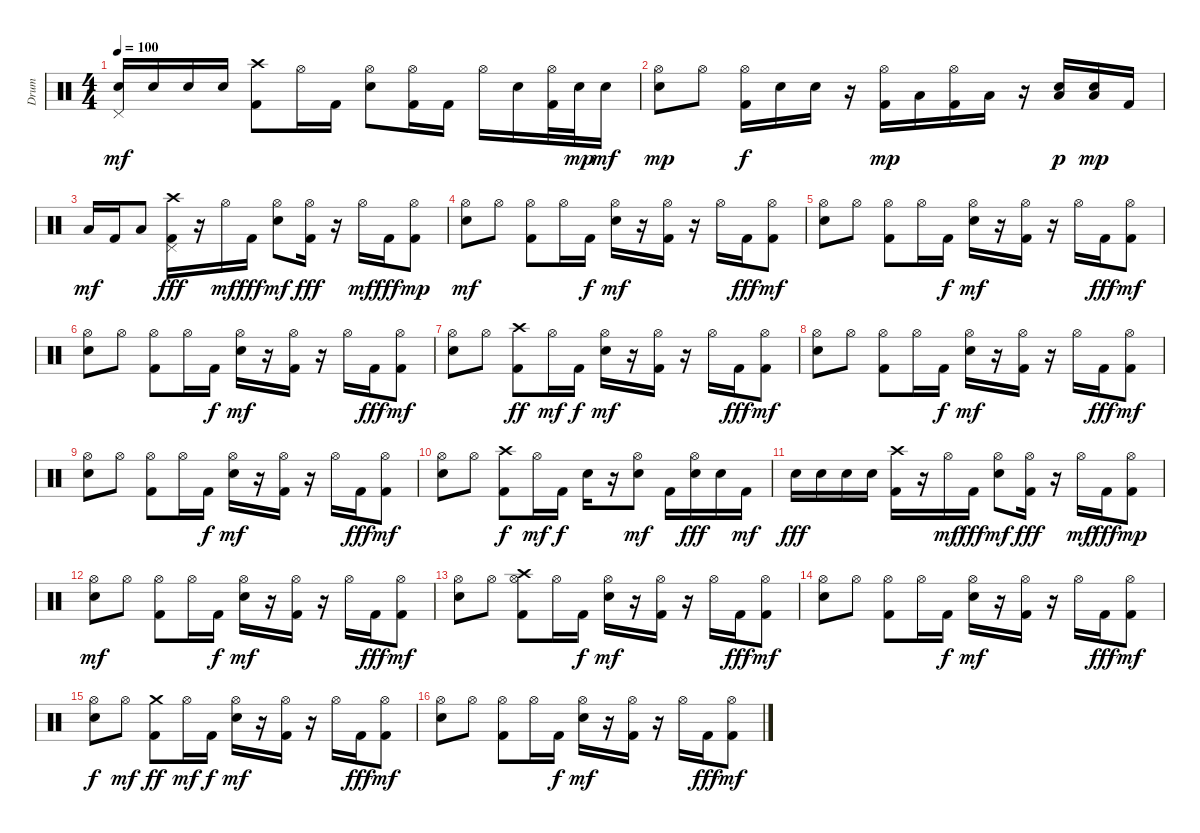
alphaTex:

\track ("Drum" "Drum") {instrument percussion}
\staff {score}
\articulation defaults
\ts (4 4)
\tempo 100
\clef neutral
\ks c
("Snare (hit) 2" "Pedal Hi-Hat (hit)").16{dy mf} "Snare (hit) 2".16 "Snare (hit) 2".16 "Snare (hit) 2".16 ("Crash high (hit)" "Kick (hit) 2").8 "Hi-Hat (open)".16 "Kick (hit) 2".16 ("Snare (hit) 2" "Hi-Hat (open)").8 ("Hi-Hat (open)" "Kick (hit) 2").16 "Kick (hit) 2".16 "Hi-Hat (open)".16 "Snare (hit) 2".16 ("Hi-Hat (open)" "Kick (hit) 2").32 "Snare (hit) 2".32{dy mp} "Snare (hit) 2".16{dy mf} |
("Snare (hit) 2" "Hi-Hat (open)").8{dy mp} "Hi-Hat (open)".8 ("Hi-Hat (open)" "Kick (hit) 2").16{dy f} "Snare (hit) 2".16 "Snare (hit) 2".16 r.16 ("Hi-Hat (open)" "Kick (hit) 2").16{dy mp} "Low Tom (hit)".16 ("Hi-Hat (open)" "Kick (hit) 2").16 "Low Tom (hit)".16 r.16 ("Low Floor Tom (hit)" "Snare (hit) 2").16{dy p} ("Low Floor Tom (hit)" "Snare (hit) 2").16{dy mp} "Kick (hit) 2".16 |
"Low Floor Tom (hit)".16{dy mf} "Kick (hit) 2".16 "Low Floor Tom (hit)".8 ("Crash high (hit)" "Pedal Hi-Hat (hit)" "Kick (hit) 2").16{dy fff} r.16 "Hi-Hat (open)".16{dy mf} "Kick (hit) 2".16{dy fff} ("Snare (hit) 2" "Hi-Hat (open)").8{dy mf} ("Hi-Hat (open)" "Kick (hit) 2").16{dy fff} r.16 "Hi-Hat (open)".16{dy mf} "Kick (hit) 2".16{dy fff} ("Hi-Hat (open)" "Kick (hit) 2").8{dy mp} |
("Snare (hit) 2" "Hi-Hat (open)").8{dy mf} "Hi-Hat (open)".8 ("Hi-Hat (open)" "Kick (hit) 2").8 "Hi-Hat (open)".16 "Kick (hit) 2".16{dy f} ("Snare (hit) 2" "Hi-Hat (open)").16{dy mf} r.16 ("Hi-Hat (open)" "Kick (hit) 2").16 r.16 "Hi-Hat (open)".16 "Kick (hit) 2".16{dy fff} ("Hi-Hat (open)" "Kick (hit) 2").8{dy mf} |
("Snare (hit) 2" "Hi-Hat (open)").8 "Hi-Hat (open)".8 ("Hi-Hat (open)" "Kick (hit) 2").8 "Hi-Hat (open)".16 "Kick (hit) 2".16{dy f} ("Snare (hit) 2" "Hi-Hat (open)").16{dy mf} r.16 ("Hi-Hat (open)" "Kick (hit) 2").16 r.16 "Hi-Hat (open)".16 "Kick (hit) 2".16{dy fff} ("Hi-Hat (open)" "Kick (hit) 2").8{dy mf} |
("Snare (hit) 2" "Hi-Hat (open)").8 "Hi-Hat (open)".8 ("Hi-Hat (open)" "Kick (hit) 2").8 "Hi-Hat (open)".16 "Kick (hit) 2".16{dy f} ("Snare (hit) 2" "Hi-Hat (open)").16{dy mf} r.16 ("Hi-Hat (open)" "Kick (hit) 2").16 r.16 "Hi-Hat (open)".16 "Kick (hit) 2".16{dy fff} ("Hi-Hat (open)" "Kick (hit) 2").8{dy mf} |
("Snare (hit) 2" "Hi-Hat (open)").8 "Hi-Hat (open)".8 ("Crash high (hit)" "Kick (hit) 2").8{dy ff} "Hi-Hat (open)".16{dy mf} "Kick (hit) 2".16{dy f} ("Snare (hit) 2" "Hi-Hat (open)").16{dy mf} r.16 ("Hi-Hat (open)" "Kick (hit) 2").16 r.16 "Hi-Hat (open)".16 "Kick (hit) 2".16{dy fff} ("Hi-Hat (open)" "Kick (hit) 2").8{dy mf} |
("Snare (hit) 2" "Hi-Hat (open)").8 "Hi-Hat (open)".8 ("Hi-Hat (open)" "Kick (hit) 2").8 "Hi-Hat (open)".16 "Kick (hit) 2".16{dy f} ("Snare (hit) 2" "Hi-Hat (open)").16{dy mf} r.16 ("Hi-Hat (open)" "Kick (hit) 2").16 r.16 "Hi-Hat (open)".16 "Kick (hit) 2".16{dy fff} ("Hi-Hat (open)" "Kick (hit) 2").8{dy mf} |
("Snare (hit) 2" "Hi-Hat (open)").8 "Hi-Hat (open)".8 ("Hi-Hat (open)" "Kick (hit) 2").8 "Hi-Hat (open)".16 "Kick (hit) 2".16{dy f} ("Snare (hit) 2" "Hi-Hat (open)").16{dy mf} r.16 ("Hi-Hat (open)" "Kick (hit) 2").16 r.16 "Hi-Hat (open)".16 "Kick (hit) 2".16{dy fff} ("Hi-Hat (open)" "Kick (hit) 2").8{dy mf} |
("Snare (hit) 2" "Hi-Hat (open)").8 "Hi-Hat (open)".8 ("Crash high (hit)" "Kick (hit) 2").8{dy f} "Hi-Hat (open)".16{dy mf} "Kick (hit) 2".16{dy f} "Snare (hit) 2".16 r.16 ("Snare (hit) 2" "Hi-Hat (open)").8{dy mf} "Kick (hit) 2".16 ("Snare (hit) 2" "Hi-Hat (open)").16{dy fff} "Snare (hit) 2".16 "Kick (hit) 2".16{dy mf} |
"Snare (hit) 2".16{dy fff} "Snare (hit) 2".16 "Snare (hit) 2".16 "Snare (hit) 2".16 ("Crash high (hit)" "Kick (hit) 2").16 r.16 "Hi-Hat (open)".16{dy mf} "Kick (hit) 2".16{dy fff} ("Snare (hit) 2" "Hi-Hat (open)").8{dy mf} ("Hi-Hat (open)" "Kick (hit) 2").16{dy fff} r.16 "Hi-Hat (open)".16{dy mf} "Kick (hit) 2".16{dy fff} ("Hi-Hat (open)" "Kick (hit) 2").8{dy mp} |
("Snare (hit) 2" "Hi-Hat (open)").8{dy mf} "Hi-Hat (open)".8 ("Hi-Hat (open)" "Kick (hit) 2").8 "Hi-Hat (open)".16 "Kick (hit) 2".16{dy f} ("Snare (hit) 2" "Hi-Hat (open)").16{dy mf} r.16 ("Hi-Hat (open)" "Kick (hit) 2").16 r.16 "Hi-Hat (open)".16 "Kick (hit) 2".16{dy fff} ("Hi-Hat (open)" "Kick (hit) 2").8{dy mf} |
("Snare (hit) 2" "Hi-Hat (open)").8 "Hi-Hat (open)".8 ("Crash high (hit)" "Hi-Hat (open)" "Kick (hit) 2").8 "Hi-Hat (open)".16 "Kick (hit) 2".16{dy f} ("Snare (hit) 2" "Hi-Hat (open)").16{dy mf} r.16 ("Hi-Hat (open)" "Kick (hit) 2").16 r.16 "Hi-Hat (open)".16 "Kick (hit) 2".16{dy fff} ("Hi-Hat (open)" "Kick (hit) 2").8{dy mf} |
("Snare (hit) 2" "Hi-Hat (open)").8 "Hi-Hat (open)".8 ("Hi-Hat (open)" "Kick (hit) 2").8 "Hi-Hat (open)".16 "Kick (hit) 2".16{dy f} ("Snare (hit) 2" "Hi-Hat (open)").16{dy mf} r.16 ("Hi-Hat (open)" "Kick (hit) 2").16 r.16 "Hi-Hat (open)".16 "Kick (hit) 2".16{dy fff} ("Hi-Hat (open)" "Kick (hit) 2").8{dy mf} |
("Snare (hit) 2" "Hi-Hat (open)").8{dy f} "Hi-Hat (open)".8{dy mf} ("Crash medium (hit)" "Kick (hit) 2").8{dy ff} "Hi-Hat (open)".16{dy mf} "Kick (hit) 2".16{dy f} ("Snare (hit) 2" "Hi-Hat (open)").16{dy mf} r.16 ("Hi-Hat (open)" "Kick (hit) 2").16 r.16 "Hi-Hat (open)".16 "Kick (hit) 2".16{dy fff} ("Hi-Hat (open)" "Kick (hit) 2").8{dy mf} |
("Snare (hit) 2" "Hi-Hat (open)").8 "Hi-Hat (open)".8 ("Hi-Hat (open)" "Kick (hit) 2").8 "Hi-Hat (open)".16 "Kick (hit) 2".16{dy f} ("Snare (hit) 2" "Hi-Hat (open)").16{dy mf} r.16 ("Hi-Hat (open)" "Kick (hit) 2").16 r.16 "Hi-Hat (open)".16 "Kick (hit) 2".16{dy fff} ("Hi-Hat (open)" "Kick (hit) 2").8{dy mf}
